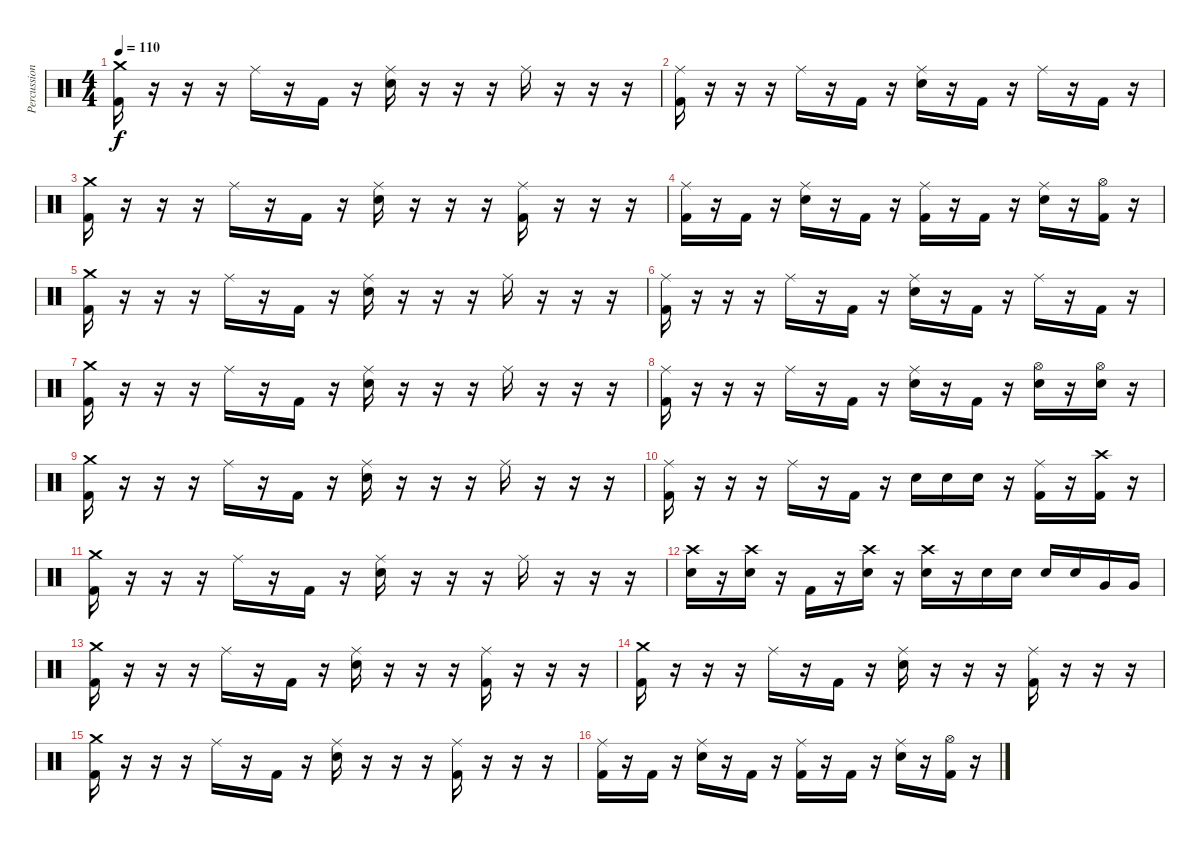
\track ("Percussion" "Percussion") {instrument percussion}
\staff {score}
\articulation defaults
\ts (4 4)
\tempo 110
\clef neutral
\ks c
("Crash medium (hit)" "Kick (hit) 2").16{dy f} r.16 r.16 r.16 "Ride (middle)".16 r.16 "Kick (hit) 2".16 r.16 ("Ride (middle)" "Electric Snare (hit)").16 r.16 r.16 r.16 "Ride (middle)".16 r.16 r.16 r.16 |
("Ride (middle)" "Kick (hit) 2").16 r.16 r.16 r.16 "Ride (middle)".16 r.16 "Kick (hit) 2".16 r.16 ("Ride (middle)" "Electric Snare (hit)").16 r.16 "Kick (hit) 2".16 r.16 "Ride (middle)".16 r.16 "Kick (hit) 2".16 r.16 |
("Crash medium (hit)" "Kick (hit) 2").16 r.16 r.16 r.16 "Ride (middle)".16 r.16 "Kick (hit) 2".16 r.16 ("Ride (middle)" "Electric Snare (hit)").16 r.16 r.16 r.16 ("Ride (middle)" "Kick (hit) 2").16 r.16 r.16 r.16 |
("Ride (middle)" "Kick (hit) 2").16 r.16 "Kick (hit) 2".16 r.16 ("Ride (middle)" "Electric Snare (hit)").16 r.16 "Kick (hit) 2".16 r.16 ("Ride (middle)" "Kick (hit) 2").16 r.16 "Kick (hit) 2".16 r.16 ("Ride (middle)" "Electric Snare (hit)").16 r.16 ("Hi-Hat (open)" "Kick (hit) 2").16 r.16 |
("Crash medium (hit)" "Kick (hit) 2").16 r.16 r.16 r.16 "Ride (middle)".16 r.16 "Kick (hit) 2".16 r.16 ("Ride (middle)" "Electric Snare (hit)").16 r.16 r.16 r.16 "Ride (middle)".16 r.16 r.16 r.16 |
("Ride (middle)" "Kick (hit) 2").16 r.16 r.16 r.16 "Ride (middle)".16 r.16 "Kick (hit) 2".16 r.16 ("Ride (middle)" "Electric Snare (hit)").16 r.16 "Kick (hit) 2".16 r.16 "Ride (middle)".16 r.16 "Kick (hit) 2".16 r.16 |
("Crash medium (hit)" "Kick (hit) 2").16 r.16 r.16 r.16 "Ride (middle)".16 r.16 "Kick (hit) 2".16 r.16 ("Ride (middle)" "Electric Snare (hit)").16 r.16 r.16 r.16 "Ride (middle)".16 r.16 r.16 r.16 |
("Ride (middle)" "Kick (hit) 2").16 r.16 r.16 r.16 "Ride (middle)".16 r.16 "Kick (hit) 2".16 r.16 ("Ride (middle)" "Electric Snare (hit)").16 r.16 "Kick (hit) 2".16 r.16 ("Hi-Hat (open)" "Electric Snare (hit)").16 r.16 ("Hi-Hat (open)" "Electric Snare (hit)").16 r.16 |
("Crash medium (hit)" "Kick (hit) 2").16 r.16 r.16 r.16 "Ride (middle)".16 r.16 "Kick (hit) 2".16 r.16 ("Ride (middle)" "Electric Snare (hit)").16 r.16 r.16 r.16 "Ride (middle)".16 r.16 r.16 r.16 |
("Ride (middle)" "Kick (hit) 2").16 r.16 r.16 r.16 "Ride (middle)".16 r.16 "Kick (hit) 2".16 r.16 "Electric Snare (hit)".16 "Electric Snare (hit)".16 "Electric Snare (hit)".16 r.16 ("Ride (middle)" "Kick (hit) 2").16 r.16 ("Crash high (hit)" "Kick (hit) 2").16 r.16 |
("Crash medium (hit)" "Kick (hit) 2").16 r.16 r.16 r.16 "Ride (middle)".16 r.16 "Kick (hit) 2".16 r.16 ("Ride (middle)" "Electric Snare (hit)").16 r.16 r.16 r.16 "Ride (middle)".16 r.16 r.16 r.16 |
("Crash high (hit)" "Electric Snare (hit)").16 r.16 ("Crash high (hit)" "Electric Snare (hit)").16 r.16 "Kick (hit) 2".16 r.16 ("Crash high (hit)" "Electric Snare (hit)").16 r.16 ("Crash high (hit)" "Electric Snare (hit)").16 r.16 "Electric Snare (hit)".16 "Electric Snare (hit)".16 "Electric Snare (hit)".16 "Electric Snare (hit)".16 "Very Low Tom (hit)".16 "Very Low Tom (hit)".16 |
("Crash medium (hit)" "Kick (hit) 2").16 r.16 r.16 r.16 "Ride (middle)".16 r.16 "Kick (hit) 2".16 r.16 ("Ride (middle)" "Electric Snare (hit)").16 r.16 r.16 r.16 ("Ride (middle)" "Kick (hit) 2").16 r.16 r.16 r.16 |
("Crash medium (hit)" "Kick (hit) 2").16 r.16 r.16 r.16 "Ride (middle)".16 r.16 "Kick (hit) 2".16 r.16 ("Ride (middle)" "Electric Snare (hit)").16 r.16 r.16 r.16 ("Ride (middle)" "Kick (hit) 2").16 r.16 r.16 r.16 |
("Crash medium (hit)" "Kick (hit) 2").16 r.16 r.16 r.16 "Ride (middle)".16 r.16 "Kick (hit) 2".16 r.16 ("Ride (middle)" "Electric Snare (hit)").16 r.16 r.16 r.16 ("Ride (middle)" "Kick (hit) 2").16 r.16 r.16 r.16 |
("Ride (middle)" "Kick (hit) 2").16 r.16 "Kick (hit) 2".16 r.16 ("Ride (middle)" "Electric Snare (hit)").16 r.16 "Kick (hit) 2".16 r.16 ("Ride (middle)" "Kick (hit) 2").16 r.16 "Kick (hit) 2".16 r.16 ("Ride (middle)" "Electric Snare (hit)").16 r.16 ("Hi-Hat (open)" "Kick (hit) 2").16 r.16
